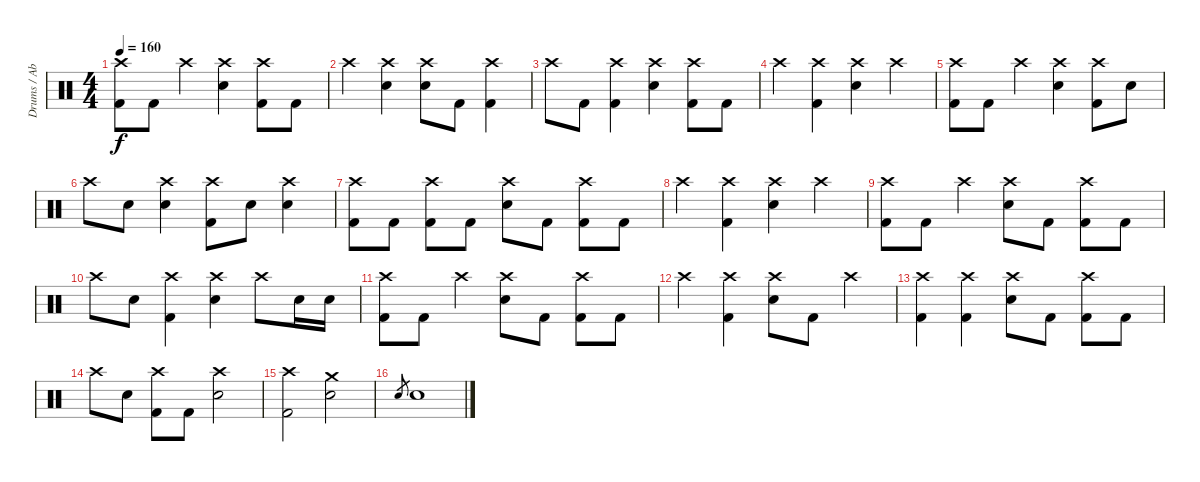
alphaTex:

\track ("Drums / Abe Cunningham" "Drums / Ab") {instrument percussion}
\staff {score}
\articulation defaults
\ts (4 4)
\tempo 160
\clef neutral
\ks c
("Crash high (hit)" "Kick (hit) 2").8{dy f} "Kick (hit) 2".8 "Crash high (hit)".4 ("Crash high (hit)" "Electric Snare (hit)").4 ("Crash high (hit)" "Kick (hit) 2").8 "Kick (hit) 2".8 |
"Crash high (hit)".4 ("Crash high (hit)" "Electric Snare (hit)").4 ("Crash high (hit)" "Electric Snare (hit)").8 "Kick (hit) 2".8 ("Crash high (hit)" "Kick (hit) 2").4 |
"Crash high (hit)".8 "Kick (hit) 2".8 ("Crash high (hit)" "Kick (hit) 2").4 ("Crash high (hit)" "Electric Snare (hit)").4 ("Crash high (hit)" "Kick (hit) 2").8 "Kick (hit) 2".8 |
"Crash high (hit)".4 ("Crash high (hit)" "Kick (hit) 2").4 ("Crash high (hit)" "Electric Snare (hit)").4 "Crash high (hit)".4 |
("Crash high (hit)" "Kick (hit) 2").8 "Kick (hit) 2".8 "Crash high (hit)".4 ("Crash high (hit)" "Electric Snare (hit)").4 ("Crash high (hit)" "Kick (hit) 2").8 "Electric Snare (hit)".8 |
"Crash high (hit)".8 "Electric Snare (hit)".8 ("Crash high (hit)" "Electric Snare (hit)").4 ("Crash high (hit)" "Kick (hit) 2").8 "Electric Snare (hit)".8 ("Crash high (hit)" "Electric Snare (hit)").4 |
("Crash high (hit)" "Kick (hit) 2").8 "Kick (hit) 2".8 ("Crash high (hit)" "Kick (hit) 2").8 "Kick (hit) 2".8 ("Crash high (hit)" "Electric Snare (hit)").8 "Kick (hit) 2".8 ("Crash high (hit)" "Kick (hit) 2").8 "Kick (hit) 2".8 |
"Crash high (hit)".4 ("Crash high (hit)" "Kick (hit) 2").4 ("Crash high (hit)" "Electric Snare (hit)").4 "Crash high (hit)".4 |
("Crash high (hit)" "Kick (hit) 2").8 "Kick (hit) 2".8 "Crash high (hit)".4 ("Crash high (hit)" "Electric Snare (hit)").8 "Kick (hit) 2".8 ("Crash high (hit)" "Kick (hit) 2").8 "Kick (hit) 2".8 |
"Crash high (hit)".8 "Electric Snare (hit)".8 ("Crash high (hit)" "Kick (hit) 2").4 ("Crash high (hit)" "Electric Snare (hit)").4 "Crash high (hit)".8 "Electric Snare (hit)".16 "Electric Snare (hit)".16 |
("Crash high (hit)" "Kick (hit) 2").8 "Kick (hit) 2".8 "Crash high (hit)".4 ("Crash high (hit)" "Electric Snare (hit)").8 "Kick (hit) 2".8 ("Crash high (hit)" "Kick (hit) 2").8 "Kick (hit) 2".8 |
"Crash high (hit)".4 ("Crash high (hit)" "Kick (hit) 2").4 ("Crash high (hit)" "Electric Snare (hit)").8 "Kick (hit) 2".8 "Crash high (hit)".4 |
("Crash high (hit)" "Kick (hit) 2").4 ("Crash high (hit)" "Kick (hit) 2").4 ("Crash high (hit)" "Electric Snare (hit)").8 "Kick (hit) 2".8 ("Crash high (hit)" "Kick (hit) 2").8 "Kick (hit) 2".8 |
"Crash high (hit)".8 "Electric Snare (hit)".8 ("Crash high (hit)" "Kick (hit) 2").8 "Kick (hit) 2".8 ("Crash high (hit)" "Electric Snare (hit)").2 |
("Crash high (hit)" "Kick (hit) 2").2 ("Crash medium (hit)" "Electric Snare (hit)").2 |
"Electric Snare (hit)".8{gr} "Electric Snare (hit)".1
